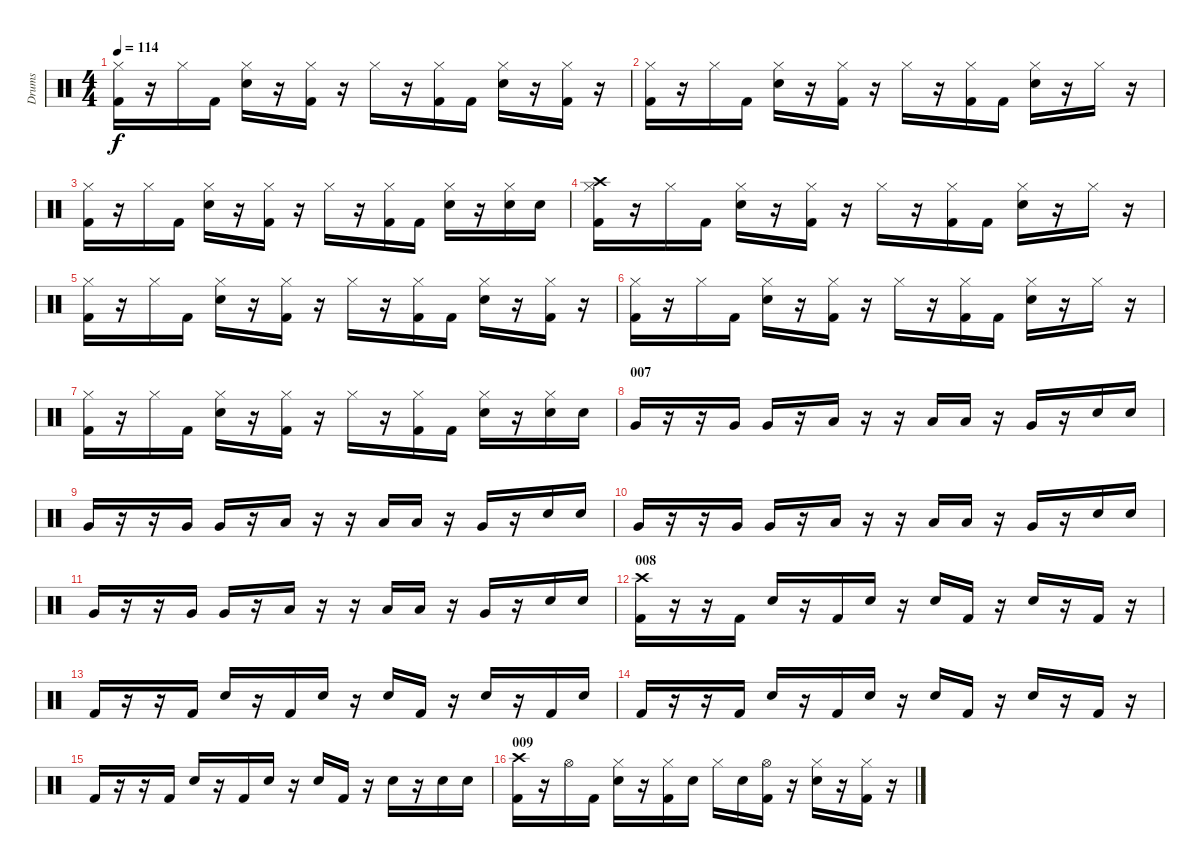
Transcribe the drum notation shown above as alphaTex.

\track ("Drums" "Drums") {instrument percussion}
\staff {score}
\articulation defaults
\ts (4 4)
\tempo 114
\clef neutral
\ks c
("Kick (hit) 2" "Hi-Hat (closed)").16{dy f} r.16 "Hi-Hat (closed)".16 "Kick (hit) 2".16 ("Snare (hit) 2" "Hi-Hat (closed)").16 r.16 ("Kick (hit) 2" "Hi-Hat (closed)").16 r.16 "Hi-Hat (closed)".16 r.16 ("Kick (hit) 2" "Hi-Hat (closed)").16 "Kick (hit) 2".16 ("Snare (hit) 2" "Hi-Hat (closed)").16 r.16 ("Kick (hit) 2" "Hi-Hat (closed)").16 r.16 |
("Kick (hit) 2" "Hi-Hat (closed)").16 r.16 "Hi-Hat (closed)".16 "Kick (hit) 2".16 ("Snare (hit) 2" "Hi-Hat (closed)").16 r.16 ("Kick (hit) 2" "Hi-Hat (closed)").16 r.16 "Hi-Hat (closed)".16 r.16 ("Kick (hit) 2" "Hi-Hat (closed)").16 "Kick (hit) 2".16 ("Snare (hit) 2" "Hi-Hat (closed)").16 r.16 "Hi-Hat (closed)".16 r.16 |
("Kick (hit) 2" "Hi-Hat (closed)").16 r.16 "Hi-Hat (closed)".16 "Kick (hit) 2".16 ("Snare (hit) 2" "Hi-Hat (closed)").16 r.16 ("Kick (hit) 2" "Hi-Hat (closed)").16 r.16 "Hi-Hat (closed)".16 r.16 ("Kick (hit) 2" "Hi-Hat (closed)").16 "Kick (hit) 2".16 ("Snare (hit) 2" "Hi-Hat (closed)").16 r.16 ("Snare (hit) 2" "Hi-Hat (closed)").16 "Snare (hit) 2".16 |
("Kick (hit) 2" "Hi-Hat (closed)" "Crash high (hit)").16 r.16 "Hi-Hat (closed)".16 "Kick (hit) 2".16 ("Snare (hit) 2" "Hi-Hat (closed)").16 r.16 ("Kick (hit) 2" "Hi-Hat (closed)").16 r.16 "Hi-Hat (closed)".16 r.16 ("Kick (hit) 2" "Hi-Hat (closed)").16 "Kick (hit) 2".16 ("Snare (hit) 2" "Hi-Hat (closed)").16 r.16 "Hi-Hat (closed)".16 r.16 |
("Kick (hit) 2" "Hi-Hat (closed)").16 r.16 "Hi-Hat (closed)".16 "Kick (hit) 2".16 ("Snare (hit) 2" "Hi-Hat (closed)").16 r.16 ("Kick (hit) 2" "Hi-Hat (closed)").16 r.16 "Hi-Hat (closed)".16 r.16 ("Kick (hit) 2" "Hi-Hat (closed)").16 "Kick (hit) 2".16 ("Snare (hit) 2" "Hi-Hat (closed)").16 r.16 ("Kick (hit) 2" "Hi-Hat (closed)").16 r.16 |
("Kick (hit) 2" "Hi-Hat (closed)").16 r.16 "Hi-Hat (closed)".16 "Kick (hit) 2".16 ("Snare (hit) 2" "Hi-Hat (closed)").16 r.16 ("Kick (hit) 2" "Hi-Hat (closed)").16 r.16 "Hi-Hat (closed)".16 r.16 ("Kick (hit) 2" "Hi-Hat (closed)").16 "Kick (hit) 2".16 ("Snare (hit) 2" "Hi-Hat (closed)").16 r.16 "Hi-Hat (closed)".16 r.16 |
("Kick (hit) 2" "Hi-Hat (closed)").16 r.16 "Hi-Hat (closed)".16 "Kick (hit) 2".16 ("Snare (hit) 2" "Hi-Hat (closed)").16 r.16 ("Kick (hit) 2" "Hi-Hat (closed)").16 r.16 "Hi-Hat (closed)".16 r.16 ("Kick (hit) 2" "Hi-Hat (closed)").16 "Kick (hit) 2".16 ("Snare (hit) 2" "Hi-Hat (closed)").16 r.16 ("Snare (hit) 2" "Hi-Hat (closed)").16 "Snare (hit) 2".16 |
\section ("" "007")
"Very Low Tom (hit)".16 r.16 r.16 "Very Low Tom (hit)".16 "Very Low Tom (hit)".16 r.16 "Low Tom (hit)".16 r.16 r.16 "Low Tom (hit)".16 "Low Tom (hit)".16 r.16 "Very Low Tom (hit)".16 r.16 "Electric Snare (hit)".16 "Electric Snare (hit)".16 |
"Very Low Tom (hit)".16 r.16 r.16 "Very Low Tom (hit)".16 "Very Low Tom (hit)".16 r.16 "Low Tom (hit)".16 r.16 r.16 "Low Tom (hit)".16 "Low Tom (hit)".16 r.16 "Very Low Tom (hit)".16 r.16 "Electric Snare (hit)".16 "Electric Snare (hit)".16 |
"Very Low Tom (hit)".16 r.16 r.16 "Very Low Tom (hit)".16 "Very Low Tom (hit)".16 r.16 "Low Tom (hit)".16 r.16 r.16 "Low Tom (hit)".16 "Low Tom (hit)".16 r.16 "Very Low Tom (hit)".16 r.16 "Electric Snare (hit)".16 "Electric Snare (hit)".16 |
"Very Low Tom (hit)".16 r.16 r.16 "Very Low Tom (hit)".16 "Very Low Tom (hit)".16 r.16 "Low Tom (hit)".16 r.16 r.16 "Low Tom (hit)".16 "Low Tom (hit)".16 r.16 "Very Low Tom (hit)".16 r.16 "Electric Snare (hit)".16 "Electric Snare (hit)".16 |
\section ("" "008")
("Kick (hit) 2" "Crash high (hit)").16 r.16 r.16 "Kick (hit) 2".16 "Electric Snare (hit)".16 r.16 "Kick (hit) 2".16 "Electric Snare (hit)".16 r.16 "Electric Snare (hit)".16 "Kick (hit) 2".16 r.16 "Electric Snare (hit)".16 r.16 "Kick (hit) 2".16 r.16 |
"Kick (hit) 2".16 r.16 r.16 "Kick (hit) 2".16 "Electric Snare (hit)".16 r.16 "Kick (hit) 2".16 "Electric Snare (hit)".16 r.16 "Electric Snare (hit)".16 "Kick (hit) 2".16 r.16 "Electric Snare (hit)".16 r.16 "Kick (hit) 2".16 "Electric Snare (hit)".16 |
"Kick (hit) 2".16 r.16 r.16 "Kick (hit) 2".16 "Electric Snare (hit)".16 r.16 "Kick (hit) 2".16 "Electric Snare (hit)".16 r.16 "Electric Snare (hit)".16 "Kick (hit) 2".16 r.16 "Electric Snare (hit)".16 r.16 "Kick (hit) 2".16 r.16 |
"Kick (hit) 2".16 r.16 r.16 "Kick (hit) 2".16 "Electric Snare (hit)".16 r.16 "Kick (hit) 2".16 "Electric Snare (hit)".16 r.16 "Electric Snare (hit)".16 "Kick (hit) 2".16 r.16 "Electric Snare (hit)".16 r.16 "Electric Snare (hit)".16 "Electric Snare (hit)".16 |
\section ("" "009")
("Kick (hit) 2" "Crash high (hit)").16 r.16 "Hi-Hat (open)".16 "Kick (hit) 2".16 ("Snare (hit) 2" "Hi-Hat (closed)").16 r.16 ("Kick (hit) 2" "Hi-Hat (closed)").16 "Snare (hit) 2".16 "Hi-Hat (closed)".16 "Snare (hit) 2".16 ("Kick (hit) 2" "Hi-Hat (open)").16 r.16 ("Snare (hit) 2" "Hi-Hat (closed)").16 r.16 ("Kick (hit) 2" "Hi-Hat (closed)").16 r.16
